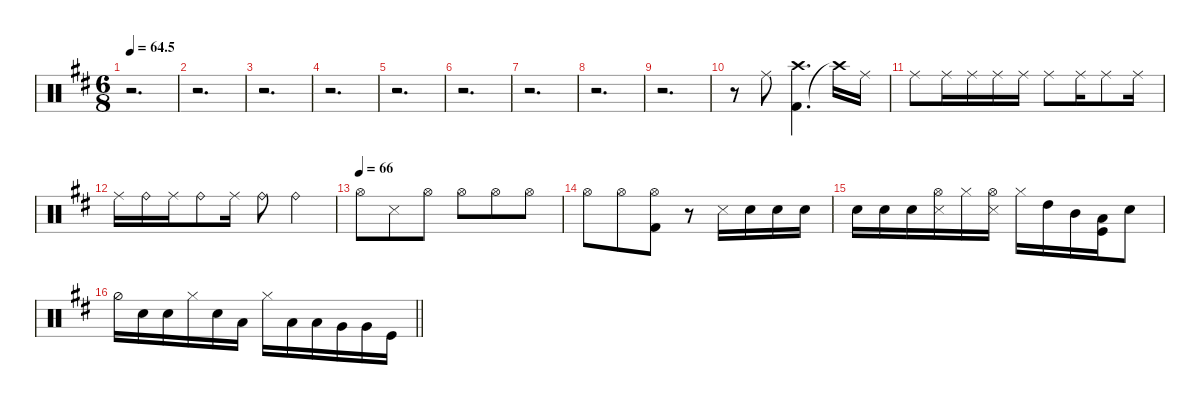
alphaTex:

\defaultSystemsLayout 4
\hideDynamics
\bracketExtendMode nobrackets
\singleTrackTrackNamePolicy hidden
\multiTrackTrackNamePolicy hidden
\firstSystemTrackNameMode fullname
\firstSystemTrackNameOrientation horizontal
\otherSystemsTrackNameOrientation horizontal
\track ("Drumkit" "drm.") {defaultSystemsLayout 8 mute instrument percussion}
\staff {score}
\articulation defaults
\ts (6 8)
\beaming (8 3 3)
\tempo
64.5
\accidentals auto
\clef neutral
\ottava regular
\simile none
\ks bminor
r.2{d dy mf beam Down} |
r.2{d beam Down} |
r.2{d beam Down} |
r.2{d beam Down} |
r.2{d beam Down} |
r.2{d beam Down} |
r.2{d beam Down} |
r.2{d beam Down} |
r.2{d beam Down} |
r.8{beam Down} "Ride (middle)"{acc forcenatural}.8{beam Down} ("Kick (hit) 2"{acc forcenatural} "Crash high (hit)"{acc forcenatural}).4{d beam Down} "Crash high (hit)"{t acc forcenatural}.16{beam Down} "Ride (middle)"{acc forcenatural}.16{beam Down} |
"Ride (middle)"{acc forcenatural}.8{beam Down} "Ride (middle)"{acc forcenatural}.16{beam Down} "Ride (middle)"{acc forcenatural}.16{beam Down} "Ride (middle)"{acc forcenatural}.16{beam Down} "Ride (middle)"{acc forcenatural}.16{beam Down} "Ride (middle)"{acc forcenatural}.8{beam Down} "Ride (middle)"{acc forcenatural}.16{beam Down} "Ride (middle)"{acc forcenatural}.8{beam Down} "Ride (middle)"{acc forcenatural}.16{beam Down} |
"Ride (middle)"{acc forcenatural}.16{beam Down} "Ride (bell)"{acc forcenatural}.16{beam Down} "Ride (middle)"{acc forcenatural}.16{beam Down} "Ride (bell)"{acc forcenatural}.8{beam Down} "Ride (middle)"{acc forcenatural}.16{beam Down} "Ride (bell)"{acc forcenatural}.8{beam Down} "Ride (bell)"{acc forcenatural}.4{beam Down} |
\tempo (66)
"Hi-Hat (open)"{acc forcenatural}.8{beam Down} "Snare (side stick) 3"{acc forcenatural}.8{beam Down} "Hi-Hat (open)"{acc forcenatural}.8{beam Down} "Hi-Hat (open)"{acc forcenatural}.8{beam Down} "Hi-Hat (open)"{acc forcenatural}.8{beam Down} "Hi-Hat (open)"{acc forcenatural}.8{beam Down} |
"Hi-Hat (open)"{acc forcenatural}.8{beam Down} "Hi-Hat (open)"{acc forcenatural}.8{beam Down} ("Hi-Hat (open)"{acc forcenatural} "Kick (hit) 2"{acc forcenatural}).8{beam Down} r.8{beam Down} "Snare (side stick) 3"{acc forcenatural}.16{beam Down} "Snare (hit) 2"{acc forcenatural}.16{beam Down} "Snare (hit) 2"{acc forcenatural}.16{beam Down} "Snare (hit) 2"{acc forcenatural}.16{beam Down} |
"Snare (hit) 2"{acc forcenatural}.16{beam Down} "Snare (hit) 2"{acc forcenatural}.16{beam Down} "Snare (hit) 2"{acc forcenatural}.16{beam Down} ("Hi-Hat (open)"{acc forcenatural} "Snare (side stick) 3"{acc forcenatural}).16{beam Down} "Hi-Hat (closed)"{acc forcenatural}.16{beam Down} ("Snare (side stick) 3"{acc forcenatural} "Hi-Hat (open)"{acc forcenatural}).16{beam Down} "Hi-Hat (closed)"{acc forcenatural}.16{beam Down} "High Tom (hit)"{acc forcenatural}.16{beam Down} "Mid Tom (hit)"{acc forcenatural}.16{beam Down} ("Low Tom (hit)"{acc forcenatural} "Kick (hit)"{acc forcenatural}).16{beam Down} "Snare (hit) 2"{acc forcenatural}.8{beam Down} |
\barLineRight lightlight "Hi-Hat (half)"{acc forcenatural}.16{beam Down} "Snare (hit) 2"{acc forcenatural}.16{beam Down} "Snare (hit) 2"{acc forcenatural}.16{beam Down} "Hi-Hat (closed)"{acc forcenatural}.16{beam Down} "Snare (hit) 2"{acc forcenatural}.16{beam Down} "Low Tom (hit)"{acc forcenatural}.16{beam Down} "Hi-Hat (closed)"{acc forcenatural}.16{beam Down} "Low Tom (hit)"{acc forcenatural}.16{beam Down} "Low Tom (hit)"{acc forcenatural}.16{beam Down} "Very Low Tom (hit)"{acc forcenatural}.16{beam Down} "Very Low Tom (hit)"{acc forcenatural}.16{beam Down} "Kick (hit)"{acc forcenatural}.16{beam Down}
